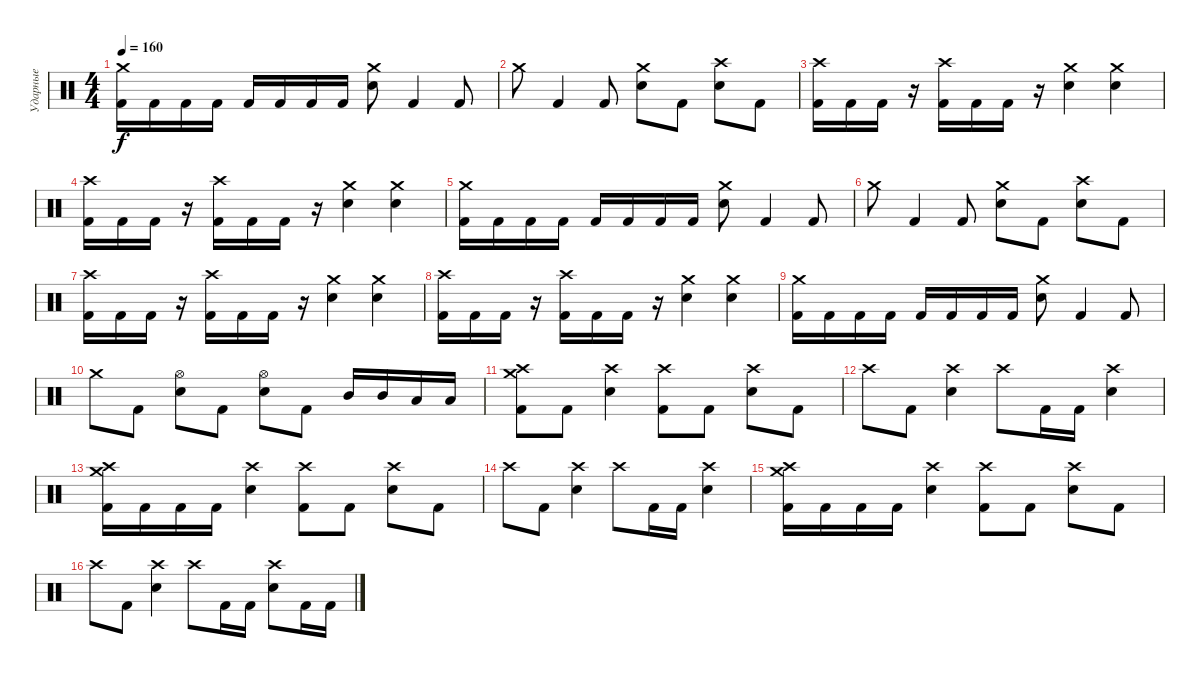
\track ("Ударные" "Ударные") {instrument percussion}
\staff {score}
\articulation defaults
\ts (4 4)
\tempo 160
\clef neutral
\ks c
("Crash medium (hit)" "Kick (hit) 2").16{dy f} "Kick (hit) 2".16 "Kick (hit) 2".16 "Kick (hit) 2".16 "Kick (hit) 2".16 "Kick (hit) 2".16 "Kick (hit) 2".16 "Kick (hit) 2".16 ("Crash medium (hit)" "Snare (hit) 2").8 "Kick (hit) 2".4 "Kick (hit) 2".8 |
"Crash medium (hit)".8 "Kick (hit) 2".4 "Kick (hit) 2".8 ("Crash medium (hit)" "Snare (hit) 2").8 "Kick (hit) 2".8 ("Crash high (hit)" "Snare (hit) 2").8 "Kick (hit) 2".8 |
("Crash high (hit)" "Kick (hit) 2").16 "Kick (hit) 2".16 "Kick (hit) 2".16 r.16 ("Crash high (hit)" "Kick (hit) 2").16 "Kick (hit) 2".16 "Kick (hit) 2".16 r.16 ("Crash medium (hit)" "Snare (hit) 2").4 ("Crash medium (hit)" "Snare (hit) 2").4 |
("Crash high (hit)" "Kick (hit) 2").16 "Kick (hit) 2".16 "Kick (hit) 2".16 r.16 ("Crash high (hit)" "Kick (hit) 2").16 "Kick (hit) 2".16 "Kick (hit) 2".16 r.16 ("Crash medium (hit)" "Snare (hit) 2").4 ("Crash medium (hit)" "Snare (hit) 2").4 |
("Crash medium (hit)" "Kick (hit) 2").16 "Kick (hit) 2".16 "Kick (hit) 2".16 "Kick (hit) 2".16 "Kick (hit) 2".16 "Kick (hit) 2".16 "Kick (hit) 2".16 "Kick (hit) 2".16 ("Crash medium (hit)" "Snare (hit) 2").8 "Kick (hit) 2".4 "Kick (hit) 2".8 |
"Crash medium (hit)".8 "Kick (hit) 2".4 "Kick (hit) 2".8 ("Crash medium (hit)" "Snare (hit) 2").8 "Kick (hit) 2".8 ("Crash high (hit)" "Snare (hit) 2").8 "Kick (hit) 2".8 |
("Crash high (hit)" "Kick (hit) 2").16 "Kick (hit) 2".16 "Kick (hit) 2".16 r.16 ("Crash high (hit)" "Kick (hit) 2").16 "Kick (hit) 2".16 "Kick (hit) 2".16 r.16 ("Crash medium (hit)" "Snare (hit) 2").4 ("Crash medium (hit)" "Snare (hit) 2").4 |
("Crash high (hit)" "Kick (hit) 2").16 "Kick (hit) 2".16 "Kick (hit) 2".16 r.16 ("Crash high (hit)" "Kick (hit) 2").16 "Kick (hit) 2".16 "Kick (hit) 2".16 r.16 ("Crash medium (hit)" "Snare (hit) 2").4 ("Crash medium (hit)" "Snare (hit) 2").4 |
("Crash medium (hit)" "Kick (hit) 2").16 "Kick (hit) 2".16 "Kick (hit) 2".16 "Kick (hit) 2".16 "Kick (hit) 2".16 "Kick (hit) 2".16 "Kick (hit) 2".16 "Kick (hit) 2".16 ("Crash medium (hit)" "Snare (hit) 2").8 "Kick (hit) 2".4 "Kick (hit) 2".8 |
"Crash medium (hit)".8 "Kick (hit) 2".8 ("Hi-Hat (open)" "Snare (hit) 2").8 "Kick (hit) 2".8 ("Hi-Hat (open)" "Snare (hit) 2").8 "Kick (hit) 2".8 "Mid Tom (hit)".16 "Mid Tom (hit)".16 "Low Tom (hit)".16 "Low Tom (hit)".16 |
("Crash high (hit)" "Crash medium (hit)" "Kick (hit) 2").8 "Kick (hit) 2".8 ("Crash high (hit)" "Snare (hit) 2").4 ("Crash high (hit)" "Kick (hit) 2").8 "Kick (hit) 2".8 ("Crash high (hit)" "Snare (hit) 2").8 "Kick (hit) 2".8 |
"Crash high (hit)".8 "Kick (hit) 2".8 ("Crash high (hit)" "Snare (hit) 2").4 "Crash high (hit)".8 "Kick (hit) 2".16 "Kick (hit) 2".16 ("Crash high (hit)" "Snare (hit) 2").4 |
("Crash high (hit)" "Crash medium (hit)" "Kick (hit) 2").16 "Kick (hit) 2".16 "Kick (hit) 2".16 "Kick (hit) 2".16 ("Crash high (hit)" "Snare (hit) 2").4 ("Crash high (hit)" "Kick (hit) 2").8 "Kick (hit) 2".8 ("Crash high (hit)" "Snare (hit) 2").8 "Kick (hit) 2".8 |
"Crash high (hit)".8 "Kick (hit) 2".8 ("Crash high (hit)" "Snare (hit) 2").4 "Crash high (hit)".8 "Kick (hit) 2".16 "Kick (hit) 2".16 ("Crash high (hit)" "Snare (hit) 2").4 |
("Crash high (hit)" "Crash medium (hit)" "Kick (hit) 2").16 "Kick (hit) 2".16 "Kick (hit) 2".16 "Kick (hit) 2".16 ("Crash high (hit)" "Snare (hit) 2").4 ("Crash high (hit)" "Kick (hit) 2").8 "Kick (hit) 2".8 ("Crash high (hit)" "Snare (hit) 2").8 "Kick (hit) 2".8 |
"Crash high (hit)".8 "Kick (hit) 2".8 ("Crash high (hit)" "Snare (hit) 2").4 "Crash high (hit)".8 "Kick (hit) 2".16 "Kick (hit) 2".16 ("Crash high (hit)" "Snare (hit) 2").8 "Kick (hit) 2".16 "Kick (hit) 2".16
